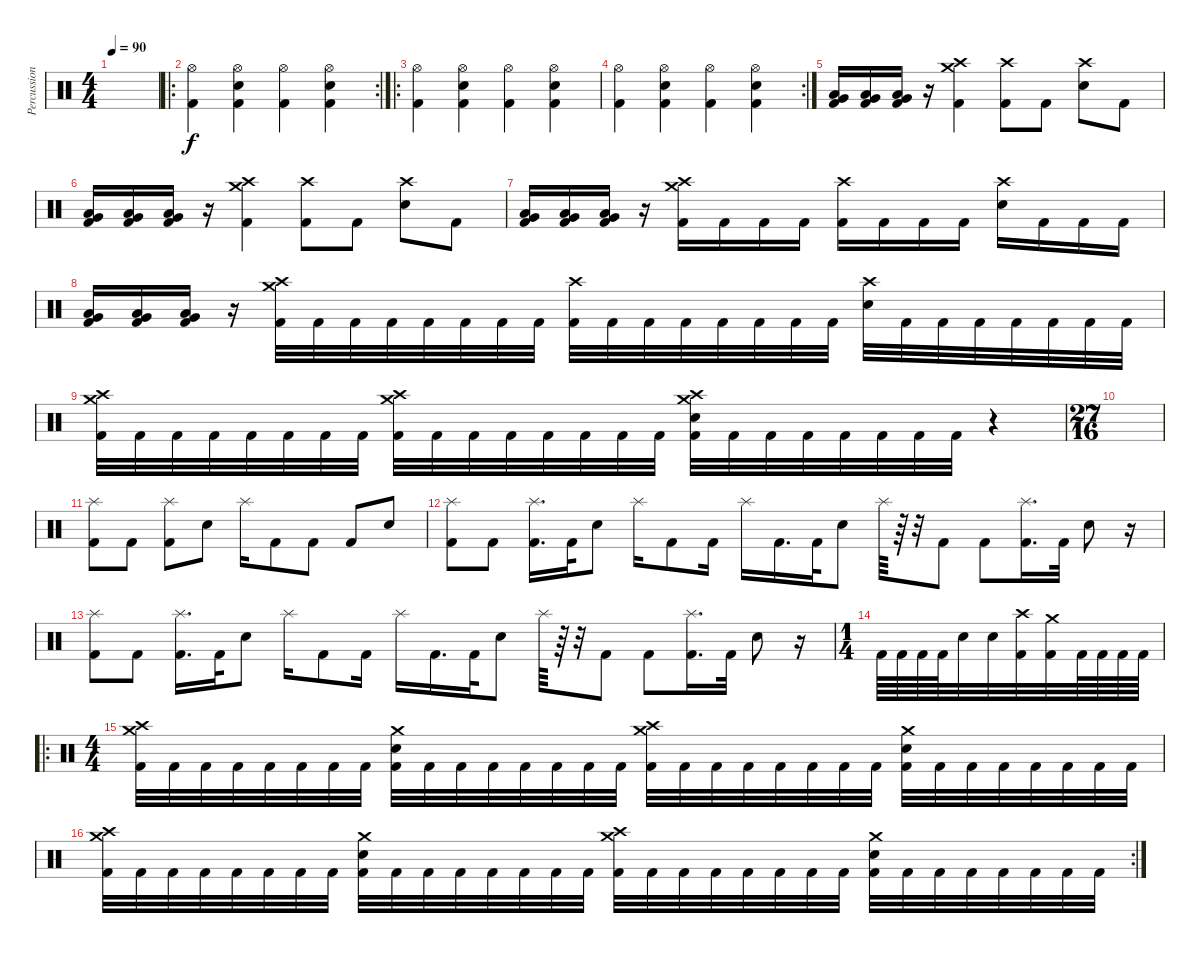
\track ("Percussion" "Percussion") {instrument percussion}
\staff {score}
\articulation defaults
\ts (4 4)
\tempo 90
\clef neutral
\ks c
|
\ro
\rc 2
("Hi-Hat (open)" "Kick (hit) 2").4 ("Hi-Hat (open)" "Snare (hit) 2" "Kick (hit) 2").4 ("Hi-Hat (open)" "Kick (hit) 2").4 ("Hi-Hat (open)" "Snare (hit) 2" "Kick (hit) 2").4 |
\ro
("Hi-Hat (open)" "Kick (hit) 2").4 ("Hi-Hat (open)" "Snare (hit) 2" "Kick (hit) 2").4 ("Hi-Hat (open)" "Kick (hit) 2").4 ("Hi-Hat (open)" "Snare (hit) 2" "Kick (hit) 2").4 |
\rc 2
("Hi-Hat (open)" "Kick (hit) 2").4 ("Hi-Hat (open)" "Snare (hit) 2" "Kick (hit) 2").4 ("Hi-Hat (open)" "Kick (hit) 2").4 ("Hi-Hat (open)" "Snare (hit) 2" "Kick (hit) 2").4 |
("Low Floor Tom (hit)" "Very Low Tom (hit)" "Kick (hit) 2").16 ("Low Floor Tom (hit)" "Very Low Tom (hit)" "Kick (hit) 2").16 ("Low Floor Tom (hit)" "Very Low Tom (hit)" "Kick (hit) 2").16 r.16 ("Crash high (hit)" "Crash medium (hit)" "Kick (hit) 2").4 ("Crash high (hit)" "Kick (hit) 2").8 "Kick (hit) 2".8 ("Crash high (hit)" "Snare (hit) 2").8 "Kick (hit) 2".8 |
("Low Floor Tom (hit)" "Very Low Tom (hit)" "Kick (hit) 2").16 ("Low Floor Tom (hit)" "Very Low Tom (hit)" "Kick (hit) 2").16 ("Low Floor Tom (hit)" "Very Low Tom (hit)" "Kick (hit) 2").16 r.16 ("Crash high (hit)" "Crash medium (hit)" "Kick (hit) 2").4 ("Crash high (hit)" "Kick (hit) 2").8 "Kick (hit) 2".8 ("Crash high (hit)" "Snare (hit) 2").8 "Kick (hit) 2".8 |
("Low Floor Tom (hit)" "Very Low Tom (hit)" "Kick (hit) 2").16 ("Low Floor Tom (hit)" "Very Low Tom (hit)" "Kick (hit) 2").16 ("Low Floor Tom (hit)" "Very Low Tom (hit)" "Kick (hit) 2").16 r.16 ("Crash high (hit)" "Crash medium (hit)" "Kick (hit) 2").16 "Kick (hit) 2".16 "Kick (hit) 2".16 "Kick (hit) 2".16 ("Crash high (hit)" "Kick (hit) 2").16 "Kick (hit) 2".16 "Kick (hit) 2".16 "Kick (hit) 2".16 ("Crash high (hit)" "Snare (hit) 2").16 "Kick (hit) 2".16 "Kick (hit) 2".16 "Kick (hit) 2".16 |
("Low Floor Tom (hit)" "Very Low Tom (hit)" "Kick (hit) 2").16 ("Low Floor Tom (hit)" "Very Low Tom (hit)" "Kick (hit) 2").16 ("Low Floor Tom (hit)" "Very Low Tom (hit)" "Kick (hit) 2").16 r.16 ("Crash high (hit)" "Crash medium (hit)" "Kick (hit) 2").32 "Kick (hit) 2".32 "Kick (hit) 2".32 "Kick (hit) 2".32 "Kick (hit) 2".32 "Kick (hit) 2".32 "Kick (hit) 2".32 "Kick (hit) 2".32 ("Crash high (hit)" "Kick (hit) 2").32 "Kick (hit) 2".32 "Kick (hit) 2".32 "Kick (hit) 2".32 "Kick (hit) 2".32 "Kick (hit) 2".32 "Kick (hit) 2".32 "Kick (hit) 2".32 ("Crash high (hit)" "Snare (hit) 2").32 "Kick (hit) 2".32 "Kick (hit) 2".32 "Kick (hit) 2".32 "Kick (hit) 2".32 "Kick (hit) 2".32 "Kick (hit) 2".32 "Kick (hit) 2".32 |
("Crash high (hit)" "Crash medium (hit)" "Kick (hit) 2").32 "Kick (hit) 2".32 "Kick (hit) 2".32 "Kick (hit) 2".32 "Kick (hit) 2".32 "Kick (hit) 2".32 "Kick (hit) 2".32 "Kick (hit) 2".32 ("Crash high (hit)" "Crash medium (hit)" "Kick (hit) 2").32 "Kick (hit) 2".32 "Kick (hit) 2".32 "Kick (hit) 2".32 "Kick (hit) 2".32 "Kick (hit) 2".32 "Kick (hit) 2".32 "Kick (hit) 2".32 ("Crash high (hit)" "Crash medium (hit)" "Snare (hit) 2" "Kick (hit) 2").32 "Kick (hit) 2".32 "Kick (hit) 2".32 "Kick (hit) 2".32 "Kick (hit) 2".32 "Kick (hit) 2".32 "Kick (hit) 2".32 "Kick (hit) 2".32 r.4 |
\ts (27 16)
|
("Splash (hit)" "Kick (hit) 2").8 "Kick (hit) 2".8 ("Splash (hit)" "Kick (hit) 2").8 "Snare (hit) 2".8 "Splash (hit)".16 "Kick (hit) 2".8 "Kick (hit) 2".8 "Kick (hit) 2".8 "Snare (hit) 2".8 |
("Splash (hit)" "Kick (hit) 2").8 "Kick (hit) 2".8 ("Splash (hit)" "Kick (hit) 2").16{d} "Kick (hit) 2".32 "Snare (hit) 2".8 "Splash (hit)".16 "Kick (hit) 2".8 "Kick (hit) 2".16 "Splash (hit)".16 "Kick (hit) 2".16{d} "Kick (hit) 2".32 "Snare (hit) 2".8 "Splash (hit)".64 r.64 r.32 "Kick (hit) 2".8 "Kick (hit) 2".8 ("Splash (hit)" "Kick (hit) 2").16{d} "Kick (hit) 2".32 "Snare (hit) 2".8 r.16 |
("Splash (hit)" "Kick (hit) 2").8 "Kick (hit) 2".8 ("Splash (hit)" "Kick (hit) 2").16{d} "Kick (hit) 2".32 "Snare (hit) 2".8 "Splash (hit)".16 "Kick (hit) 2".8 "Kick (hit) 2".16 "Splash (hit)".16 "Kick (hit) 2".16{d} "Kick (hit) 2".32 "Snare (hit) 2".8 "Splash (hit)".64 r.64 r.32 "Kick (hit) 2".8 "Kick (hit) 2".8 ("Splash (hit)" "Kick (hit) 2").16{d} "Kick (hit) 2".32 "Snare (hit) 2".8 r.16 |
\ts (1 4)
"Kick (hit) 2".64 "Kick (hit) 2".64 "Kick (hit) 2".64 "Kick (hit) 2".64 "Snare (hit) 2".32 "Snare (hit) 2".32 ("Crash high (hit)" "Kick (hit) 2").32 ("Crash medium (hit)" "Kick (hit) 2").32 "Kick (hit) 2".64 "Kick (hit) 2".64 "Kick (hit) 2".64 "Kick (hit) 2".64 |
\ro
\ts (4 4)
("Crash high (hit)" "Crash medium (hit)" "Kick (hit) 2").32 "Kick (hit) 2".32 "Kick (hit) 2".32 "Kick (hit) 2".32 "Kick (hit) 2".32 "Kick (hit) 2".32 "Kick (hit) 2".32 "Kick (hit) 2".32 ("Crash medium (hit)" "Snare (hit) 2" "Kick (hit) 2").32 "Kick (hit) 2".32 "Kick (hit) 2".32 "Kick (hit) 2".32 "Kick (hit) 2".32 "Kick (hit) 2".32 "Kick (hit) 2".32 "Kick (hit) 2".32 ("Crash high (hit)" "Crash medium (hit)" "Kick (hit) 2").32 "Kick (hit) 2".32 "Kick (hit) 2".32 "Kick (hit) 2".32 "Kick (hit) 2".32 "Kick (hit) 2".32 "Kick (hit) 2".32 "Kick (hit) 2".32 ("Crash medium (hit)" "Snare (hit) 2" "Kick (hit) 2").32 "Kick (hit) 2".32 "Kick (hit) 2".32 "Kick (hit) 2".32 "Kick (hit) 2".32 "Kick (hit) 2".32 "Kick (hit) 2".32 "Kick (hit) 2".32 |
\rc 2
("Crash high (hit)" "Crash medium (hit)" "Kick (hit) 2").32 "Kick (hit) 2".32 "Kick (hit) 2".32 "Kick (hit) 2".32 "Kick (hit) 2".32 "Kick (hit) 2".32 "Kick (hit) 2".32 "Kick (hit) 2".32 ("Crash medium (hit)" "Snare (hit) 2" "Kick (hit) 2").32 "Kick (hit) 2".32 "Kick (hit) 2".32 "Kick (hit) 2".32 "Kick (hit) 2".32 "Kick (hit) 2".32 "Kick (hit) 2".32 "Kick (hit) 2".32 ("Crash high (hit)" "Crash medium (hit)" "Kick (hit) 2").32 "Kick (hit) 2".32 "Kick (hit) 2".32 "Kick (hit) 2".32 "Kick (hit) 2".32 "Kick (hit) 2".32 "Kick (hit) 2".32 "Kick (hit) 2".32 ("Crash medium (hit)" "Snare (hit) 2" "Kick (hit) 2").32 "Kick (hit) 2".32 "Kick (hit) 2".32 "Kick (hit) 2".32 "Kick (hit) 2".32 "Kick (hit) 2".32 "Kick (hit) 2".32 "Kick (hit) 2".32
